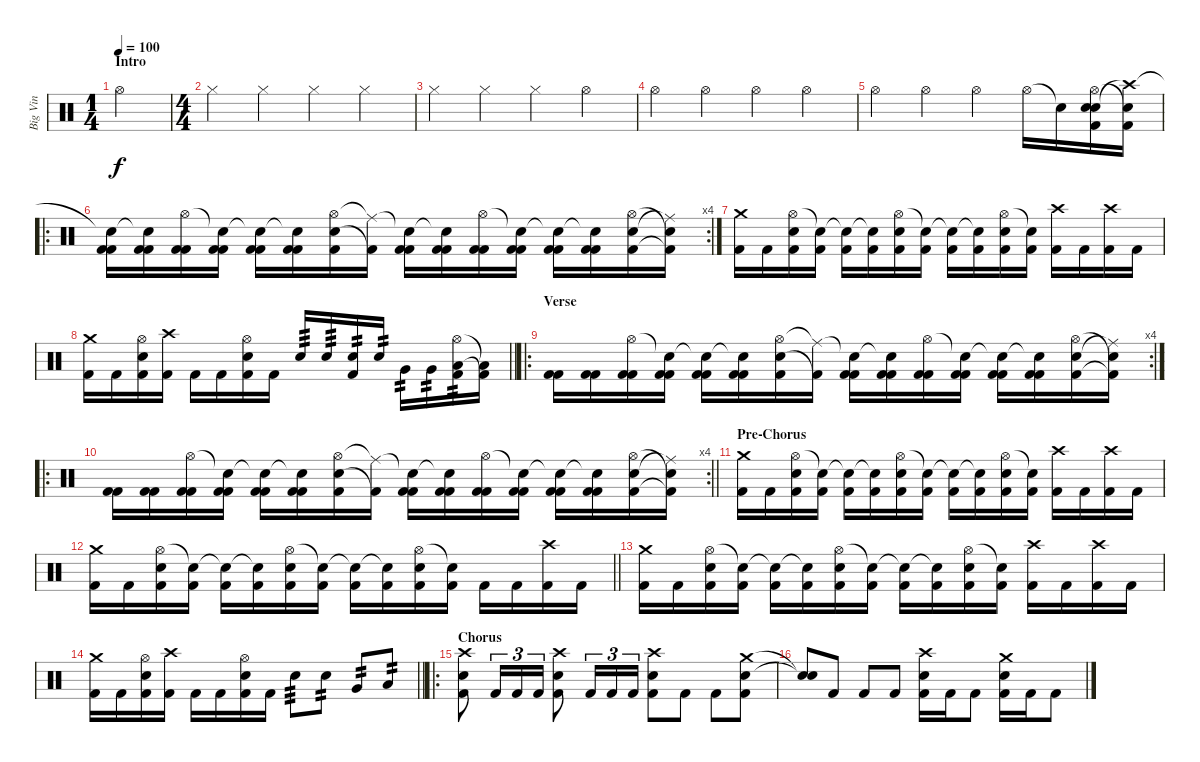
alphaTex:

\track ("Big Vin" "Big Vin") {instrument percussion}
\staff {score}
\articulation defaults
\ts (1 4)
\section ("" "Intro")
\tempo 100
\clef neutral
\ks c "Hi-Hat (open)".4{dy f}
|
\ts (4 4)
"Hi-Hat (closed)".4 "Hi-Hat (closed)".4 "Hi-Hat (closed)".4 "Hi-Hat (closed)".4 |
"Hi-Hat (closed)".4 "Hi-Hat (closed)".4 "Hi-Hat (closed)".4 "Hi-Hat (open)".4 |
"Hi-Hat (open)".4 "Hi-Hat (open)".4 "Hi-Hat (open)".4 "Hi-Hat (open)".4 |
"Hi-Hat (open)".4 "Hi-Hat (open)".4 "Hi-Hat (open)".4 "Hi-Hat (open)".16 "Snare (hit)"{t}.16 ("Electric Snare (hit)" "Hi-Hat (open)" "Snare (hit)" "Kick (hit) 2").16 ("Crash high (hit)"{t} "Electric Snare (hit)"{t} "Kick (hit) 2").16 |
\ro
\rc 4
("Snare (hit)"{t} "Kick (hit) 2" "Kick (hit) 2").16 ("Snare (hit)"{t} "Kick (hit) 2" "Kick (hit) 2").16 ("Hi-Hat (open)" "Kick (hit) 2" "Kick (hit) 2").16 ("Snare (hit)"{t} "Kick (hit) 2" "Kick (hit) 2").16 ("Snare (hit)"{t} "Kick (hit) 2" "Kick (hit) 2").16 ("Snare (hit)"{t} "Kick (hit) 2" "Kick (hit) 2").16 ("Hi-Hat (open)" "Electric Snare (hit)" "Kick (hit) 2").16 ("Ride (middle)"{t} "Kick (hit) 2"{t}).16 ("Snare (hit)"{t} "Kick (hit) 2" "Kick (hit) 2").16 ("Snare (hit)"{t} "Kick (hit) 2" "Kick (hit) 2").16 ("Hi-Hat (open)" "Kick (hit) 2" "Kick (hit) 2").16 ("Snare (hit)"{t} "Kick (hit) 2" "Kick (hit) 2").16 ("Snare (hit)"{t} "Kick (hit) 2" "Kick (hit) 2").16 ("Snare (hit)"{t} "Kick (hit) 2" "Kick (hit) 2").16 ("Hi-Hat (open)" "Electric Snare (hit)" "Kick (hit) 2").16 ("Snare (hit)"{t} "Ride (middle)"{t} "Kick (hit) 2"{t}).16 |
("Crash medium (hit)" "Kick (hit) 2").16 "Kick (hit) 2".16 ("Hi-Hat (open)" "Electric Snare (hit)" "Kick (hit) 2").16 ("Snare (hit)"{t} "Kick (hit) 2").16 ("Snare (hit)"{t} "Kick (hit) 2").16 ("Snare (hit)"{t} "Kick (hit) 2").16 ("Hi-Hat (open)" "Electric Snare (hit)" "Kick (hit) 2").16 ("Snare (hit)"{t} "Kick (hit) 2").16 ("Snare (hit)"{t} "Kick (hit) 2").16 ("Snare (hit)"{t} "Kick (hit) 2").16 ("Hi-Hat (open)" "Electric Snare (hit)" "Kick (hit) 2").16 ("Snare (hit)"{t} "Kick (hit) 2").16 ("Crash high (hit)" "Kick (hit) 2").16 "Kick (hit) 2".16 ("Crash high (hit)" "Kick (hit) 2").16 "Kick (hit) 2".16 |
\barLineRight lightlight
("Crash medium (hit)" "Kick (hit) 2").16 "Kick (hit) 2".16 ("Hi-Hat (open)" "Electric Snare (hit)" "Kick (hit) 2").16 ("Crash high (hit)" "Kick (hit) 2").16 "Kick (hit) 2".16 "Kick (hit) 2".16 ("Hi-Hat (open)" "Electric Snare (hit)" "Kick (hit) 2").16 "Kick (hit) 2".16 "Electric Snare (hit)".16{tp 3} "Electric Snare (hit)".16{tp 3} ("Electric Snare (hit)" "Kick (hit) 2").16{tp 2} "Electric Snare (hit)".16{tp 2} "Very Low Tom (hit)".16{tp 2} "Very Low Tom (hit)".16{tp 2} ("Hi-Hat (open)" "Low Floor Tom (hit)" "Kick (hit) 2").16{tp 2} ("Low Floor Tom (hit)"{t} "Kick (hit) 2"{t}).16 |
\ro
\rc 4
\section ("" "Verse")
("Kick (hit) 2" "Kick (hit) 2").16 ("Kick (hit) 2" "Kick (hit) 2").16 ("Hi-Hat (open)" "Kick (hit) 2" "Kick (hit) 2").16 ("Snare (hit)"{t} "Kick (hit) 2" "Kick (hit) 2").16 ("Snare (hit)"{t} "Kick (hit) 2" "Kick (hit) 2").16 ("Snare (hit)"{t} "Kick (hit) 2" "Kick (hit) 2").16 ("Hi-Hat (open)" "Electric Snare (hit)" "Kick (hit) 2").16 ("Ride (middle)"{t} "Kick (hit) 2"{t}).16 ("Snare (hit)"{t} "Kick (hit) 2" "Kick (hit) 2").16 ("Snare (hit)"{t} "Kick (hit) 2" "Kick (hit) 2").16 ("Hi-Hat (open)" "Kick (hit) 2" "Kick (hit) 2").16 ("Snare (hit)"{t} "Kick (hit) 2" "Kick (hit) 2").16 ("Snare (hit)"{t} "Kick (hit) 2" "Kick (hit) 2").16 ("Snare (hit)"{t} "Kick (hit) 2" "Kick (hit) 2").16 ("Hi-Hat (open)" "Electric Snare (hit)" "Kick (hit) 2").16 ("Snare (hit)"{t} "Ride (middle)"{t} "Kick (hit) 2"{t}).16 |
\ro
\rc 4
\barLineRight lightlight
("Kick (hit) 2" "Kick (hit) 2").16 ("Kick (hit) 2" "Kick (hit) 2").16 ("Hi-Hat (open)" "Kick (hit) 2" "Kick (hit) 2").16 ("Snare (hit)"{t} "Kick (hit) 2" "Kick (hit) 2").16 ("Snare (hit)"{t} "Kick (hit) 2" "Kick (hit) 2").16 ("Snare (hit)"{t} "Kick (hit) 2" "Kick (hit) 2").16 ("Hi-Hat (open)" "Electric Snare (hit)" "Kick (hit) 2").16 ("Ride (middle)"{t} "Kick (hit) 2"{t}).16 ("Snare (hit)"{t} "Kick (hit) 2" "Kick (hit) 2").16 ("Snare (hit)"{t} "Kick (hit) 2" "Kick (hit) 2").16 ("Hi-Hat (open)" "Kick (hit) 2" "Kick (hit) 2").16 ("Snare (hit)"{t} "Kick (hit) 2" "Kick (hit) 2").16 ("Snare (hit)"{t} "Kick (hit) 2" "Kick (hit) 2").16 ("Snare (hit)"{t} "Kick (hit) 2" "Kick (hit) 2").16 ("Hi-Hat (open)" "Electric Snare (hit)" "Kick (hit) 2").16 ("Snare (hit)"{t} "Ride (middle)"{t} "Kick (hit) 2"{t}).16 |
\section ("" "Pre-Chorus")
("Crash medium (hit)" "Kick (hit) 2").16 "Kick (hit) 2".16 ("Hi-Hat (open)" "Electric Snare (hit)" "Kick (hit) 2").16 ("Snare (hit)"{t} "Kick (hit) 2").16 ("Snare (hit)"{t} "Kick (hit) 2").16 ("Snare (hit)"{t} "Kick (hit) 2").16 ("Hi-Hat (open)" "Electric Snare (hit)" "Kick (hit) 2").16 ("Snare (hit)"{t} "Kick (hit) 2").16 ("Snare (hit)"{t} "Kick (hit) 2").16 ("Snare (hit)"{t} "Kick (hit) 2").16 ("Hi-Hat (open)" "Electric Snare (hit)" "Kick (hit) 2").16 ("Snare (hit)"{t} "Kick (hit) 2").16 ("Crash high (hit)" "Kick (hit) 2").16 "Kick (hit) 2".16 ("Crash high (hit)" "Kick (hit) 2").16 "Kick (hit) 2".16 |
\barLineRight lightlight
("Crash medium (hit)" "Kick (hit) 2").16 "Kick (hit) 2".16 ("Hi-Hat (open)" "Electric Snare (hit)" "Kick (hit) 2").16 ("Snare (hit)"{t} "Kick (hit) 2").16 ("Snare (hit)"{t} "Kick (hit) 2").16 ("Snare (hit)"{t} "Kick (hit) 2").16 ("Hi-Hat (open)" "Electric Snare (hit)" "Kick (hit) 2").16 ("Snare (hit)"{t} "Kick (hit) 2").16 ("Snare (hit)"{t} "Kick (hit) 2").16 ("Snare (hit)"{t} "Kick (hit) 2").16 ("Hi-Hat (open)" "Electric Snare (hit)" "Kick (hit) 2").16 ("Snare (hit)"{t} "Kick (hit) 2").16 "Kick (hit) 2".16 "Kick (hit) 2".16 ("Crash high (hit)" "Kick (hit) 2").16 "Kick (hit) 2".16 |
("Crash medium (hit)" "Kick (hit) 2").16 "Kick (hit) 2".16 ("Hi-Hat (open)" "Electric Snare (hit)" "Kick (hit) 2").16 ("Snare (hit)"{t} "Kick (hit) 2").16 ("Snare (hit)"{t} "Kick (hit) 2").16 ("Snare (hit)"{t} "Kick (hit) 2").16 ("Hi-Hat (open)" "Electric Snare (hit)" "Kick (hit) 2").16 ("Snare (hit)"{t} "Kick (hit) 2").16 ("Snare (hit)"{t} "Kick (hit) 2").16 ("Snare (hit)"{t} "Kick (hit) 2").16 ("Hi-Hat (open)" "Electric Snare (hit)" "Kick (hit) 2").16 ("Snare (hit)"{t} "Kick (hit) 2").16 ("Crash high (hit)" "Kick (hit) 2").16 "Kick (hit) 2".16 ("Crash high (hit)" "Kick (hit) 2").16 "Kick (hit) 2".16 |
\barLineRight lightlight
("Crash medium (hit)" "Kick (hit) 2").16 "Kick (hit) 2".16 ("Hi-Hat (open)" "Electric Snare (hit)" "Kick (hit) 2").16 ("Crash high (hit)" "Kick (hit) 2").16 "Kick (hit) 2".16 "Kick (hit) 2".16 ("Hi-Hat (open)" "Electric Snare (hit)" "Kick (hit) 2").16 "Kick (hit) 2".16 "Electric Snare (hit)".8{tp 3} "Electric Snare (hit)".8{tp 2} "Very Low Tom (hit)".8{tp 2} "Low Floor Tom (hit)".8{tp 2} |
\ro
\section ("" "Chorus")
("Crash high (hit)" "Electric Snare (hit)" "Kick (hit) 2").8 "Kick (hit) 2".16{tu (3 2)} "Kick (hit) 2".16{tu (3 2)} "Kick (hit) 2".16{tu (3 2)} ("Crash high (hit)" "Electric Snare (hit)" "Kick (hit) 2").8 "Kick (hit) 2".16{tu (3 2)} "Kick (hit) 2".16{tu (3 2)} "Kick (hit) 2".16{tu (3 2)} ("Crash high (hit)" "Electric Snare (hit)" "Kick (hit) 2").8 "Kick (hit) 2".8 "Kick (hit) 2".8 ("Crash medium (hit)" "Electric Snare (hit)" "Kick (hit) 2").8 |
("Snare (hit)"{t} "Snare (hit)"{t}).8 "Kick (hit) 2".8 "Kick (hit) 2".8 "Kick (hit) 2".8 ("Crash high (hit)" "Electric Snare (hit)" "Kick (hit) 2").16 "Kick (hit) 2".16 "Kick (hit) 2".8 ("Crash medium (hit)" "Electric Snare (hit)" "Kick (hit) 2").16 "Kick (hit) 2".16 "Kick (hit) 2".8
